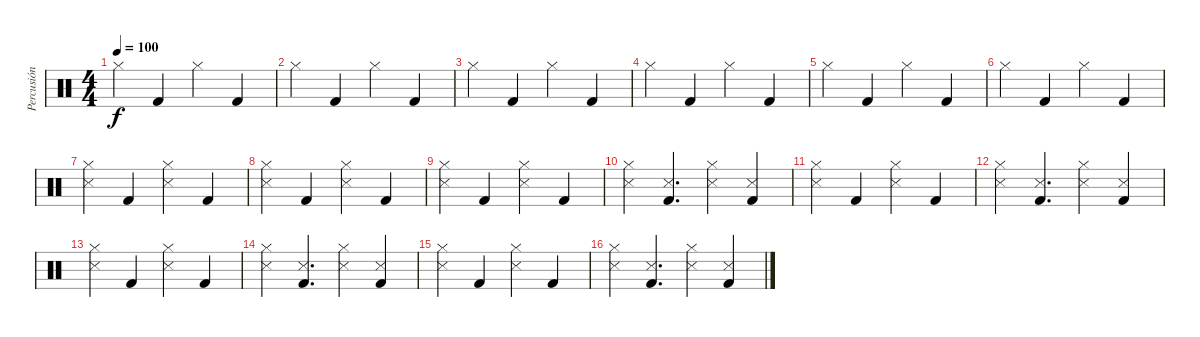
\track ("Percusión" "Percusión") {instrument percussion}
\staff {score}
\articulation defaults
\ts (4 4)
\tempo 100
\clef neutral
\ks c "Hi-Hat (closed)".4{dy f} "Kick (hit) 2".4 "Hi-Hat (closed)".4 "Kick (hit) 2".4
|
"Hi-Hat (closed)".4 "Kick (hit) 2".4 "Hi-Hat (closed)".4 "Kick (hit) 2".4 |
"Hi-Hat (closed)".4 "Kick (hit) 2".4 "Hi-Hat (closed)".4 "Kick (hit) 2".4 |
"Hi-Hat (closed)".4 "Kick (hit) 2".4 "Hi-Hat (closed)".4 "Kick (hit) 2".4 |
"Hi-Hat (closed)".4 "Kick (hit) 2".4 "Hi-Hat (closed)".4 "Kick (hit) 2".4 |
"Hi-Hat (closed)".4 "Kick (hit) 2".4 "Hi-Hat (closed)".4 "Kick (hit) 2".4 |
("Snare (side stick) 3" "Hi-Hat (closed)").4 "Kick (hit) 2".4 ("Snare (side stick) 3" "Hi-Hat (closed)").4 "Kick (hit) 2".4 |
("Snare (side stick) 3" "Hi-Hat (closed)").4 "Kick (hit) 2".4 ("Snare (side stick) 3" "Hi-Hat (closed)").4 "Kick (hit) 2".4 |
("Snare (side stick) 3" "Hi-Hat (closed)").4 "Kick (hit) 2".4 ("Snare (side stick) 3" "Hi-Hat (closed)").4 "Kick (hit) 2".4 |
("Snare (side stick) 3" "Hi-Hat (closed)").4 ("Snare (side stick) 3" "Kick (hit) 2").4{d} ("Snare (side stick) 3" "Hi-Hat (closed)").4 ("Snare (side stick) 3" "Kick (hit) 2").4 |
("Snare (side stick) 3" "Hi-Hat (closed)").4 "Kick (hit) 2".4 ("Snare (side stick) 3" "Hi-Hat (closed)").4 "Kick (hit) 2".4 |
("Snare (side stick) 3" "Hi-Hat (closed)").4 ("Snare (side stick) 3" "Kick (hit) 2").4{d} ("Snare (side stick) 3" "Hi-Hat (closed)").4 ("Snare (side stick) 3" "Kick (hit) 2").4 |
("Snare (side stick) 3" "Hi-Hat (closed)").4 "Kick (hit) 2".4 ("Snare (side stick) 3" "Hi-Hat (closed)").4 "Kick (hit) 2".4 |
("Snare (side stick) 3" "Hi-Hat (closed)").4 ("Snare (side stick) 3" "Kick (hit) 2").4{d} ("Snare (side stick) 3" "Hi-Hat (closed)").4 ("Snare (side stick) 3" "Kick (hit) 2").4 |
("Snare (side stick) 3" "Hi-Hat (closed)").4 "Kick (hit) 2".4 ("Snare (side stick) 3" "Hi-Hat (closed)").4 "Kick (hit) 2".4 |
("Snare (side stick) 3" "Hi-Hat (closed)").4 ("Snare (side stick) 3" "Kick (hit) 2").4{d} ("Snare (side stick) 3" "Hi-Hat (closed)").4 ("Snare (side stick) 3" "Kick (hit) 2").4
